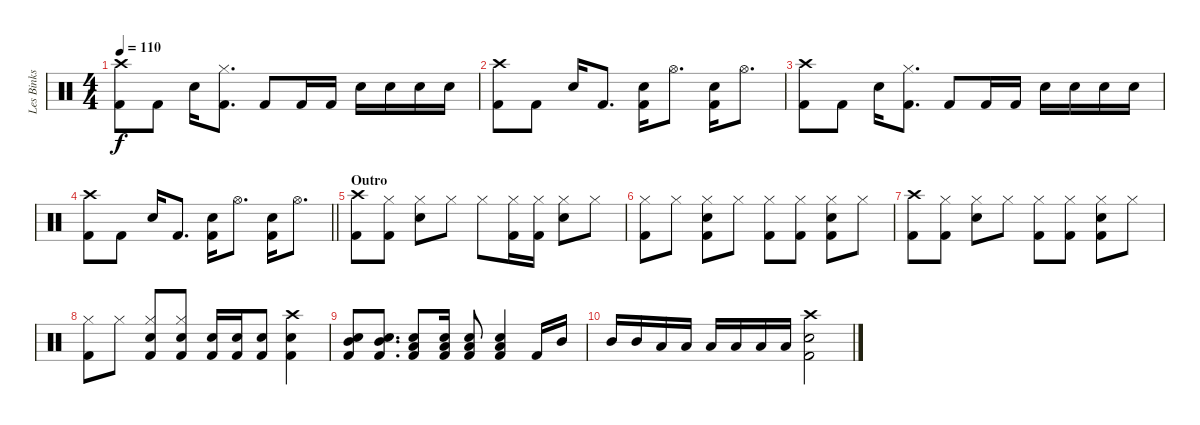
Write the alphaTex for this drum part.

\track ("Les Binks" "Les Binks") {instrument percussion}
\staff {score}
\articulation defaults
\ts (4 4)
\tempo 110
\clef neutral
\ks c
("Crash high (hit)" "Kick (hit) 2").8{dy f} "Kick (hit) 2".8 "Electric Snare (hit)".16 ("Hi-Hat (closed)" "Kick (hit) 2").8{d} "Kick (hit) 2".8 "Kick (hit) 2".16 "Kick (hit) 2".16 "Electric Snare (hit)".16 "Electric Snare (hit)".16 "Electric Snare (hit)".16 "Electric Snare (hit)".16 |
("Crash high (hit)" "Kick (hit) 2").8 "Kick (hit) 2".8 "Electric Snare (hit)".16 "Kick (hit) 2".8{d} ("Electric Snare (hit)" "Kick (hit) 2").16 "Hi-Hat (open)".8{d} ("Electric Snare (hit)" "Kick (hit) 2").16 "Hi-Hat (open)".8{d} |
("Crash high (hit)" "Kick (hit) 2").8 "Kick (hit) 2".8 "Electric Snare (hit)".16 ("Hi-Hat (closed)" "Kick (hit) 2").8{d} "Kick (hit) 2".8 "Kick (hit) 2".16 "Kick (hit) 2".16 "Electric Snare (hit)".16 "Electric Snare (hit)".16 "Electric Snare (hit)".16 "Electric Snare (hit)".16 |
\barLineRight lightlight
("Crash high (hit)" "Kick (hit) 2").8 "Kick (hit) 2".8 "Electric Snare (hit)".16 "Kick (hit) 2".8{d} ("Electric Snare (hit)" "Kick (hit) 2").16 "Hi-Hat (open)".8{d} ("Electric Snare (hit)" "Kick (hit) 2").16 "Hi-Hat (open)".8{d} |
\section ("" "Outro")
("Crash high (hit)" "Kick (hit) 2").8 ("Hi-Hat (closed)" "Kick (hit) 2").8 ("Hi-Hat (closed)" "Snare (hit) 2").8 "Hi-Hat (closed)".8 "Hi-Hat (closed)".8 ("Hi-Hat (closed)" "Kick (hit) 2").16 ("Hi-Hat (closed)" "Kick (hit) 2").16 ("Hi-Hat (closed)" "Snare (hit) 2").8 "Hi-Hat (closed)".8 |
("Hi-Hat (closed)" "Kick (hit) 2").8 "Hi-Hat (closed)".8 ("Hi-Hat (closed)" "Snare (hit) 2" "Kick (hit) 2").8 "Hi-Hat (closed)".8 ("Hi-Hat (closed)" "Kick (hit) 2").8 ("Hi-Hat (closed)" "Kick (hit) 2").8 ("Hi-Hat (closed)" "Snare (hit) 2" "Kick (hit) 2").8 "Hi-Hat (closed)".8 |
("Crash high (hit)" "Kick (hit) 2").8 ("Hi-Hat (closed)" "Kick (hit) 2").8 ("Hi-Hat (closed)" "Snare (hit) 2").8 "Hi-Hat (closed)".8 ("Hi-Hat (closed)" "Kick (hit) 2").8 ("Hi-Hat (closed)" "Kick (hit) 2").8 ("Hi-Hat (closed)" "Snare (hit) 2" "Kick (hit) 2").8 "Hi-Hat (closed)".8 |
("Hi-Hat (closed)" "Kick (hit) 2").8 "Hi-Hat (closed)".8 ("Hi-Hat (closed)" "Snare (hit) 2" "Kick (hit) 2").8 ("Hi-Hat (closed)" "Snare (hit) 2" "Kick (hit) 2").8 ("Snare (hit) 2" "Kick (hit) 2").16 ("Snare (hit) 2" "Kick (hit) 2").16 ("Snare (hit) 2" "Kick (hit) 2").8 ("Crash high (hit)" "Snare (hit) 2" "Kick (hit) 2").4 |
("Mid Tom (hit)" "Snare (hit) 2" "Kick (hit) 2").8 ("Mid Tom (hit)" "Snare (hit) 2" "Kick (hit) 2").8{d} ("Low Tom (hit)" "Snare (hit) 2" "Kick (hit) 2").8 ("Low Tom (hit)" "Snare (hit) 2" "Kick (hit) 2").16 ("Low Tom (hit)" "Snare (hit) 2" "Kick (hit) 2").8 ("Low Tom (hit)" "Snare (hit) 2" "Kick (hit) 2").4 "Kick (hit) 2".16 "Mid Tom (hit)".16 |
"Mid Tom (hit)".16 "Mid Tom (hit)".16 "Low Tom (hit)".16 "Low Tom (hit)".16 "Low Tom (hit)".16 "Low Floor Tom (hit)".16 "Low Floor Tom (hit)".16 "Low Floor Tom (hit)".16 ("Crash high (hit)" "Snare (hit) 2" "Kick (hit) 2").2
